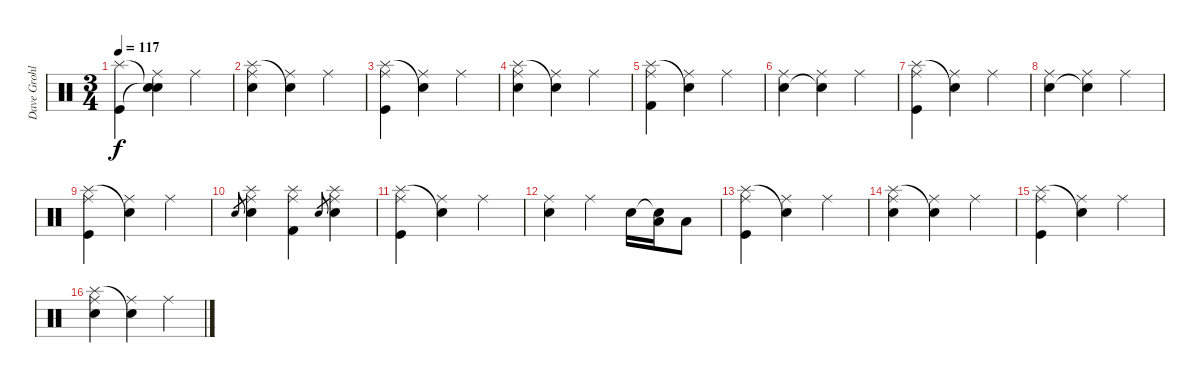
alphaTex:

\track ("Dave Grohl" "Dave Grohl") {instrument percussion}
\staff {score}
\articulation defaults
\ts (3 4)
\tempo 117
\clef neutral
\ks c
("Splash (hit)" "Kick (hit)").4{dy f} ("Snare (hit)"{t} "Snare (hit)"{t} "Ride (middle)").4 "Ride (middle)".4 |
("Splash (hit)" "Electric Snare (hit)" "Ride (middle)").4 ("Snare (hit)"{t} "Ride (middle)").4 "Ride (middle)".4 |
("Splash (hit)" "Kick (hit)" "Ride (middle)").4 ("Snare (hit)"{t} "Ride (middle)").4 "Ride (middle)".4 |
("Splash (hit)" "Electric Snare (hit)" "Ride (middle)").4 ("Snare (hit)"{t} "Ride (middle)").4 "Ride (middle)".4 |
("Splash (hit)" "Kick (hit) 2" "Ride (middle)").4 ("Snare (hit)"{t} "Ride (middle)").4 "Ride (middle)".4 |
("Electric Snare (hit)" "Ride (middle)").4 ("Snare (hit)"{t} "Ride (middle)").4 "Ride (middle)".4 |
("Splash (hit)" "Kick (hit)" "Ride (middle)").4 ("Snare (hit)"{t} "Ride (middle)").4 "Ride (middle)".4 |
("Electric Snare (hit)" "Ride (middle)").4 ("Snare (hit)"{t} "Ride (middle)").4 "Ride (middle)".4 |
("Splash (hit)" "Kick (hit)" "Ride (middle)").4 ("Snare (hit)"{t} "Ride (middle)").4 "Ride (middle)".4 |
"Electric Snare (hit)"{h}.8{gr} ("Splash (hit)" "Ride (middle)" "Electric Snare (hit)").4 ("Splash (hit)" "Ride (middle)" "Kick (hit) 2").4 "Electric Snare (hit)".8{gr} ("Splash (hit)" "Ride (middle)" "Electric Snare (hit)").4 |
("Splash (hit)" "Kick (hit)" "Ride (middle)").4 ("Snare (hit)"{t} "Ride (middle)").4 "Ride (middle)".4 |
("Electric Snare (hit)" "Ride (middle)").4 "Ride (middle)".4 "Electric Snare (hit)".16 ("Snare (hit)"{t} "Low Tom (hit)").16 "Low Floor Tom (hit)".8 |
("Splash (hit)" "Kick (hit)" "Ride (middle)").4 ("Snare (hit)"{t} "Ride (middle)").4 "Ride (middle)".4 |
("Splash (hit)" "Electric Snare (hit)" "Ride (middle)").4 ("Snare (hit)"{t} "Ride (middle)").4 "Ride (middle)".4 |
("Splash (hit)" "Kick (hit)" "Ride (middle)").4 ("Snare (hit)"{t} "Ride (middle)").4 "Ride (middle)".4 |
("Splash (hit)" "Electric Snare (hit)" "Ride (middle)").4 ("Snare (hit)"{t} "Ride (middle)").4 "Ride (middle)".4
